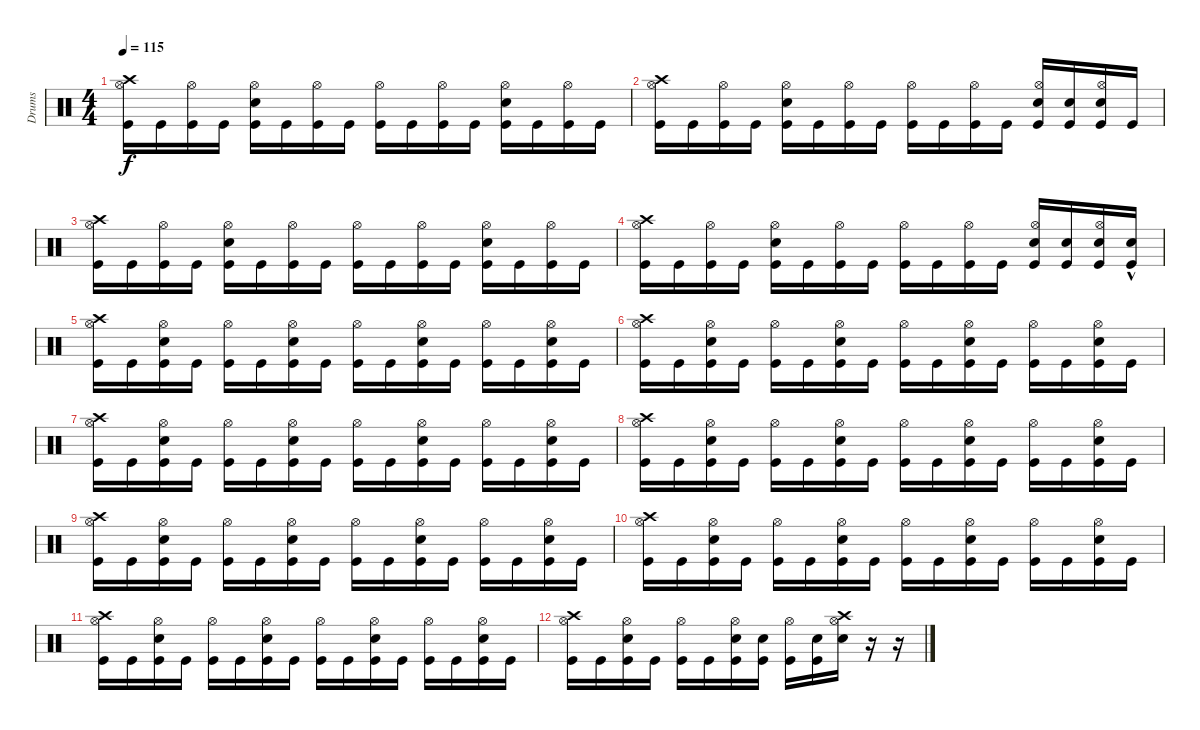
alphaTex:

\track ("Drums" "Drums") {instrument percussion}
\staff {score}
\articulation defaults
\ts (4 4)
\tempo 115
\clef neutral
\ks c
("Crash high (hit)" "Kick (hit)" "Hi-Hat (open)").16{dy f} "Kick (hit)".16 ("Kick (hit)" "Hi-Hat (open)").16 "Kick (hit)".16 ("Electric Snare (hit)" "Kick (hit)" "Hi-Hat (open)").16 "Kick (hit)".16 ("Kick (hit)" "Hi-Hat (open)").16 "Kick (hit)".16 ("Hi-Hat (open)" "Kick (hit)").16 "Kick (hit)".16 ("Kick (hit)" "Hi-Hat (open)").16 "Kick (hit)".16 ("Electric Snare (hit)" "Hi-Hat (open)" "Kick (hit)").16 "Kick (hit)".16 ("Kick (hit)" "Hi-Hat (open)").16 "Kick (hit)".16 |
("Crash high (hit)" "Kick (hit)" "Hi-Hat (open)").16 "Kick (hit)".16 ("Kick (hit)" "Hi-Hat (open)").16 "Kick (hit)".16 ("Electric Snare (hit)" "Kick (hit)" "Hi-Hat (open)").16 "Kick (hit)".16 ("Kick (hit)" "Hi-Hat (open)").16 "Kick (hit)".16 ("Hi-Hat (open)" "Kick (hit)").16 "Kick (hit)".16 ("Kick (hit)" "Hi-Hat (open)").16 "Kick (hit)".16 ("Electric Snare (hit)" "Hi-Hat (open)" "Kick (hit)").16 ("Electric Snare (hit)" "Kick (hit)").16 ("Electric Snare (hit)" "Kick (hit)" "Hi-Hat (open)").16 "Kick (hit)".16 |
("Crash high (hit)" "Kick (hit)" "Hi-Hat (open)").16 "Kick (hit)".16 ("Kick (hit)" "Hi-Hat (open)").16 "Kick (hit)".16 ("Electric Snare (hit)" "Kick (hit)" "Hi-Hat (open)").16 "Kick (hit)".16 ("Kick (hit)" "Hi-Hat (open)").16 "Kick (hit)".16 ("Hi-Hat (open)" "Kick (hit)").16 "Kick (hit)".16 ("Kick (hit)" "Hi-Hat (open)").16 "Kick (hit)".16 ("Electric Snare (hit)" "Hi-Hat (open)" "Kick (hit)").16 "Kick (hit)".16 ("Kick (hit)" "Hi-Hat (open)").16 "Kick (hit)".16 |
("Crash high (hit)" "Kick (hit)" "Hi-Hat (open)").16 "Kick (hit)".16 ("Kick (hit)" "Hi-Hat (open)").16 "Kick (hit)".16 ("Electric Snare (hit)" "Kick (hit)" "Hi-Hat (open)").16 "Kick (hit)".16 ("Kick (hit)" "Hi-Hat (open)").16 "Kick (hit)".16 ("Hi-Hat (open)" "Kick (hit)").16 "Kick (hit)".16 ("Kick (hit)" "Hi-Hat (open)").16 "Kick (hit)".16 ("Electric Snare (hit)" "Hi-Hat (open)" "Kick (hit)").16 ("Electric Snare (hit)" "Kick (hit)").16 ("Electric Snare (hit)" "Kick (hit)" "Hi-Hat (open)").16 ("Electric Snare (hit)"{hac} "Kick (hit)").16 |
("Crash high (hit)" "Kick (hit)" "Hi-Hat (open)").16 "Kick (hit)".16 ("Kick (hit)" "Electric Snare (hit)" "Hi-Hat (open)").16 "Kick (hit)".16 ("Kick (hit)" "Hi-Hat (open)").16 "Kick (hit)".16 ("Kick (hit)" "Electric Snare (hit)" "Hi-Hat (open)").16 "Kick (hit)".16 ("Hi-Hat (open)" "Kick (hit)").16 "Kick (hit)".16 ("Kick (hit)" "Hi-Hat (open)" "Electric Snare (hit)").16 "Kick (hit)".16 ("Hi-Hat (open)" "Kick (hit)").16 "Kick (hit)".16 ("Kick (hit)" "Hi-Hat (open)" "Electric Snare (hit)").16 "Kick (hit)".16 |
("Crash high (hit)" "Kick (hit)" "Hi-Hat (open)").16 "Kick (hit)".16 ("Kick (hit)" "Electric Snare (hit)" "Hi-Hat (open)").16 "Kick (hit)".16 ("Kick (hit)" "Hi-Hat (open)").16 "Kick (hit)".16 ("Kick (hit)" "Electric Snare (hit)" "Hi-Hat (open)").16 "Kick (hit)".16 ("Hi-Hat (open)" "Kick (hit)").16 "Kick (hit)".16 ("Kick (hit)" "Hi-Hat (open)" "Electric Snare (hit)").16 "Kick (hit)".16 ("Hi-Hat (open)" "Kick (hit)").16 "Kick (hit)".16 ("Kick (hit)" "Hi-Hat (open)" "Electric Snare (hit)").16 "Kick (hit)".16 |
("Crash high (hit)" "Kick (hit)" "Hi-Hat (open)").16 "Kick (hit)".16 ("Kick (hit)" "Electric Snare (hit)" "Hi-Hat (open)").16 "Kick (hit)".16 ("Kick (hit)" "Hi-Hat (open)").16 "Kick (hit)".16 ("Kick (hit)" "Electric Snare (hit)" "Hi-Hat (open)").16 "Kick (hit)".16 ("Hi-Hat (open)" "Kick (hit)").16 "Kick (hit)".16 ("Kick (hit)" "Hi-Hat (open)" "Electric Snare (hit)").16 "Kick (hit)".16 ("Hi-Hat (open)" "Kick (hit)").16 "Kick (hit)".16 ("Kick (hit)" "Hi-Hat (open)" "Electric Snare (hit)").16 "Kick (hit)".16 |
("Crash high (hit)" "Kick (hit)" "Hi-Hat (open)").16 "Kick (hit)".16 ("Kick (hit)" "Electric Snare (hit)" "Hi-Hat (open)").16 "Kick (hit)".16 ("Kick (hit)" "Hi-Hat (open)").16 "Kick (hit)".16 ("Kick (hit)" "Electric Snare (hit)" "Hi-Hat (open)").16 "Kick (hit)".16 ("Hi-Hat (open)" "Kick (hit)").16 "Kick (hit)".16 ("Kick (hit)" "Hi-Hat (open)" "Electric Snare (hit)").16 "Kick (hit)".16 ("Hi-Hat (open)" "Kick (hit)").16 "Kick (hit)".16 ("Kick (hit)" "Hi-Hat (open)" "Electric Snare (hit)").16 "Kick (hit)".16 |
("Crash high (hit)" "Kick (hit)" "Hi-Hat (open)").16 "Kick (hit)".16 ("Kick (hit)" "Electric Snare (hit)" "Hi-Hat (open)").16 "Kick (hit)".16 ("Kick (hit)" "Hi-Hat (open)").16 "Kick (hit)".16 ("Kick (hit)" "Electric Snare (hit)" "Hi-Hat (open)").16 "Kick (hit)".16 ("Hi-Hat (open)" "Kick (hit)").16 "Kick (hit)".16 ("Kick (hit)" "Hi-Hat (open)" "Electric Snare (hit)").16 "Kick (hit)".16 ("Hi-Hat (open)" "Kick (hit)").16 "Kick (hit)".16 ("Kick (hit)" "Hi-Hat (open)" "Electric Snare (hit)").16 "Kick (hit)".16 |
("Crash high (hit)" "Kick (hit)" "Hi-Hat (open)").16 "Kick (hit)".16 ("Kick (hit)" "Electric Snare (hit)" "Hi-Hat (open)").16 "Kick (hit)".16 ("Kick (hit)" "Hi-Hat (open)").16 "Kick (hit)".16 ("Kick (hit)" "Electric Snare (hit)" "Hi-Hat (open)").16 "Kick (hit)".16 ("Hi-Hat (open)" "Kick (hit)").16 "Kick (hit)".16 ("Kick (hit)" "Hi-Hat (open)" "Electric Snare (hit)").16 "Kick (hit)".16 ("Hi-Hat (open)" "Kick (hit)").16 "Kick (hit)".16 ("Kick (hit)" "Hi-Hat (open)" "Electric Snare (hit)").16 "Kick (hit)".16 |
("Crash high (hit)" "Kick (hit)" "Hi-Hat (open)").16 "Kick (hit)".16 ("Kick (hit)" "Electric Snare (hit)" "Hi-Hat (open)").16 "Kick (hit)".16 ("Kick (hit)" "Hi-Hat (open)").16 "Kick (hit)".16 ("Kick (hit)" "Electric Snare (hit)" "Hi-Hat (open)").16 "Kick (hit)".16 ("Hi-Hat (open)" "Kick (hit)").16 "Kick (hit)".16 ("Kick (hit)" "Hi-Hat (open)" "Electric Snare (hit)").16 "Kick (hit)".16 ("Hi-Hat (open)" "Kick (hit)").16 "Kick (hit)".16 ("Kick (hit)" "Hi-Hat (open)" "Electric Snare (hit)").16 "Kick (hit)".16 |
("Crash high (hit)" "Kick (hit)" "Hi-Hat (open)").16 "Kick (hit)".16 ("Kick (hit)" "Electric Snare (hit)" "Hi-Hat (open)").16 "Kick (hit)".16 ("Kick (hit)" "Hi-Hat (open)").16 "Kick (hit)".16 ("Kick (hit)" "Electric Snare (hit)" "Hi-Hat (open)").16 ("Kick (hit)" "Electric Snare (hit)").16 ("Hi-Hat (open)" "Kick (hit)").16 ("Kick (hit)" "Electric Snare (hit)").16 ("Crash high (hit)" "Hi-Hat (open)" "Electric Snare (hit)").16 r.16 r.16
